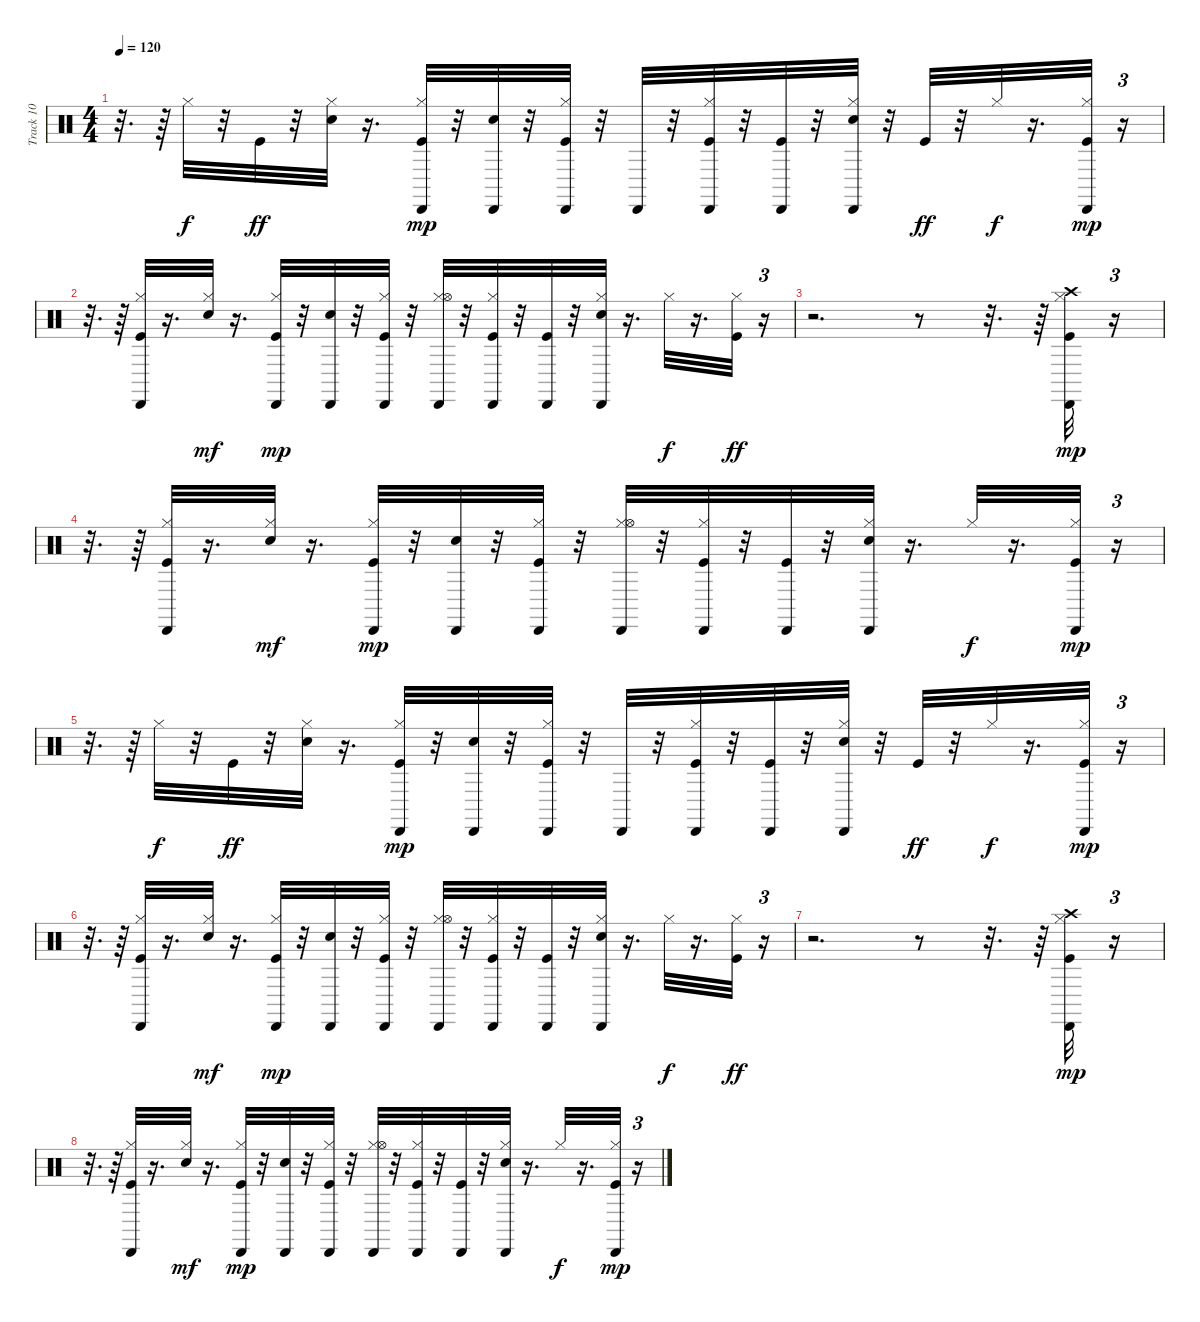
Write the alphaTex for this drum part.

\track ("Track 10" "Track 10") {instrument percussion}
\staff {score}
\articulation defaults
\ts (4 4)
\tempo 120
\clef neutral
\ks c
r.32{d dy mp} r.64 "Hi-Hat (closed)".32{dy f} r.32 "Kick (hit)".32{dy ff} r.32 ("Electric Snare (hit)" "Hi-Hat (closed)").32 r.16{d} ("Kick (hit)" "Hi-Hat (closed)" "Cabasa (hit)").32{dy mp} r.32 ("Electric Snare (hit)" "Cabasa (hit)").32 r.32 ("Kick (hit)" "Hi-Hat (closed)" "Cabasa (hit)").32 r.32 "Cabasa (hit)".32 r.32 ("Kick (hit)" "Hi-Hat (closed)" "Cabasa (hit)").32 r.32 ("Kick (hit)" "Cabasa (hit)").32 r.32 ("Electric Snare (hit)" "Hi-Hat (closed)" "Cabasa (hit)").32 r.32 "Kick (hit)".32{dy ff} r.32 "Hi-Hat (closed)".32{dy f} r.16{d} ("Kick (hit)" "Hi-Hat (closed)" "Cabasa (hit)").32{dy mp} r.16{tu (3 2)} |
r.32{d} r.64 ("Kick (hit)" "Hi-Hat (closed)" "Cabasa (hit)").32 r.16{d} ("Electric Snare (hit)" "Hi-Hat (closed)").32{dy mf} r.16{d} ("Kick (hit)" "Hi-Hat (closed)" "Cabasa (hit)").32{dy mp} r.32 ("Electric Snare (hit)" "Cabasa (hit)").32 r.32 ("Kick (hit)" "Hi-Hat (closed)" "Cabasa (hit)").32 r.32 ("Hi-Hat (closed)" "Hi-Hat (open)" "Cabasa (hit)").32 r.32 ("Kick (hit)" "Hi-Hat (closed)" "Cabasa (hit)").32 r.32 ("Kick (hit)" "Cabasa (hit)").32 r.32 ("Electric Snare (hit)" "Hi-Hat (closed)" "Cabasa (hit)").32 r.16{d} "Hi-Hat (closed)".32{dy f} r.16{d} ("Kick (hit)" "Hi-Hat (closed)").32{dy ff} r.16{tu (3 2)} |
r.2{d} r.8 r.32{d} r.64 ("Kick (hit)" "Hi-Hat (closed)" "Crash high (hit)" "Cabasa (hit)").32{dy mp} r.16{tu (3 2)} |
r.32{d} r.64 ("Kick (hit)" "Hi-Hat (closed)" "Cabasa (hit)").32 r.16{d} ("Electric Snare (hit)" "Hi-Hat (closed)").32{dy mf} r.16{d} ("Kick (hit)" "Hi-Hat (closed)" "Cabasa (hit)").32{dy mp} r.32 ("Electric Snare (hit)" "Cabasa (hit)").32 r.32 ("Kick (hit)" "Hi-Hat (closed)" "Cabasa (hit)").32 r.32 ("Hi-Hat (closed)" "Hi-Hat (open)" "Cabasa (hit)").32 r.32 ("Kick (hit)" "Hi-Hat (closed)" "Cabasa (hit)").32 r.32 ("Kick (hit)" "Cabasa (hit)").32 r.32 ("Electric Snare (hit)" "Hi-Hat (closed)" "Cabasa (hit)").32 r.16{d} "Hi-Hat (closed)".32{dy f} r.16{d} ("Kick (hit)" "Hi-Hat (closed)" "Cabasa (hit)").32{dy mp} r.16{tu (3 2)} |
r.32{d} r.64 "Hi-Hat (closed)".32{dy f} r.32 "Kick (hit)".32{dy ff} r.32 ("Electric Snare (hit)" "Hi-Hat (closed)").32 r.16{d} ("Kick (hit)" "Hi-Hat (closed)" "Cabasa (hit)").32{dy mp} r.32 ("Electric Snare (hit)" "Cabasa (hit)").32 r.32 ("Kick (hit)" "Hi-Hat (closed)" "Cabasa (hit)").32 r.32 "Cabasa (hit)".32 r.32 ("Kick (hit)" "Hi-Hat (closed)" "Cabasa (hit)").32 r.32 ("Kick (hit)" "Cabasa (hit)").32 r.32 ("Electric Snare (hit)" "Hi-Hat (closed)" "Cabasa (hit)").32 r.32 "Kick (hit)".32{dy ff} r.32 "Hi-Hat (closed)".32{dy f} r.16{d} ("Kick (hit)" "Hi-Hat (closed)" "Cabasa (hit)").32{dy mp} r.16{tu (3 2)} |
r.32{d} r.64 ("Kick (hit)" "Hi-Hat (closed)" "Cabasa (hit)").32 r.16{d} ("Electric Snare (hit)" "Hi-Hat (closed)").32{dy mf} r.16{d} ("Kick (hit)" "Hi-Hat (closed)" "Cabasa (hit)").32{dy mp} r.32 ("Electric Snare (hit)" "Cabasa (hit)").32 r.32 ("Kick (hit)" "Hi-Hat (closed)" "Cabasa (hit)").32 r.32 ("Hi-Hat (closed)" "Hi-Hat (open)" "Cabasa (hit)").32 r.32 ("Kick (hit)" "Hi-Hat (closed)" "Cabasa (hit)").32 r.32 ("Kick (hit)" "Cabasa (hit)").32 r.32 ("Electric Snare (hit)" "Hi-Hat (closed)" "Cabasa (hit)").32 r.16{d} "Hi-Hat (closed)".32{dy f} r.16{d} ("Kick (hit)" "Hi-Hat (closed)").32{dy ff} r.16{tu (3 2)} |
r.2{d} r.8 r.32{d} r.64 ("Kick (hit)" "Hi-Hat (closed)" "Crash high (hit)" "Cabasa (hit)").32{dy mp} r.16{tu (3 2)} |
r.32{d} r.64 ("Kick (hit)" "Hi-Hat (closed)" "Cabasa (hit)").32 r.16{d} ("Electric Snare (hit)" "Hi-Hat (closed)").32{dy mf} r.16{d} ("Kick (hit)" "Hi-Hat (closed)" "Cabasa (hit)").32{dy mp} r.32 ("Electric Snare (hit)" "Cabasa (hit)").32 r.32 ("Kick (hit)" "Hi-Hat (closed)" "Cabasa (hit)").32 r.32 ("Hi-Hat (closed)" "Hi-Hat (open)" "Cabasa (hit)").32 r.32 ("Kick (hit)" "Hi-Hat (closed)" "Cabasa (hit)").32 r.32 ("Kick (hit)" "Cabasa (hit)").32 r.32 ("Electric Snare (hit)" "Hi-Hat (closed)" "Cabasa (hit)").32 r.16{d} "Hi-Hat (closed)".32{dy f} r.16{d} ("Kick (hit)" "Hi-Hat (closed)" "Cabasa (hit)").32{dy mp} r.16{tu (3 2)}
